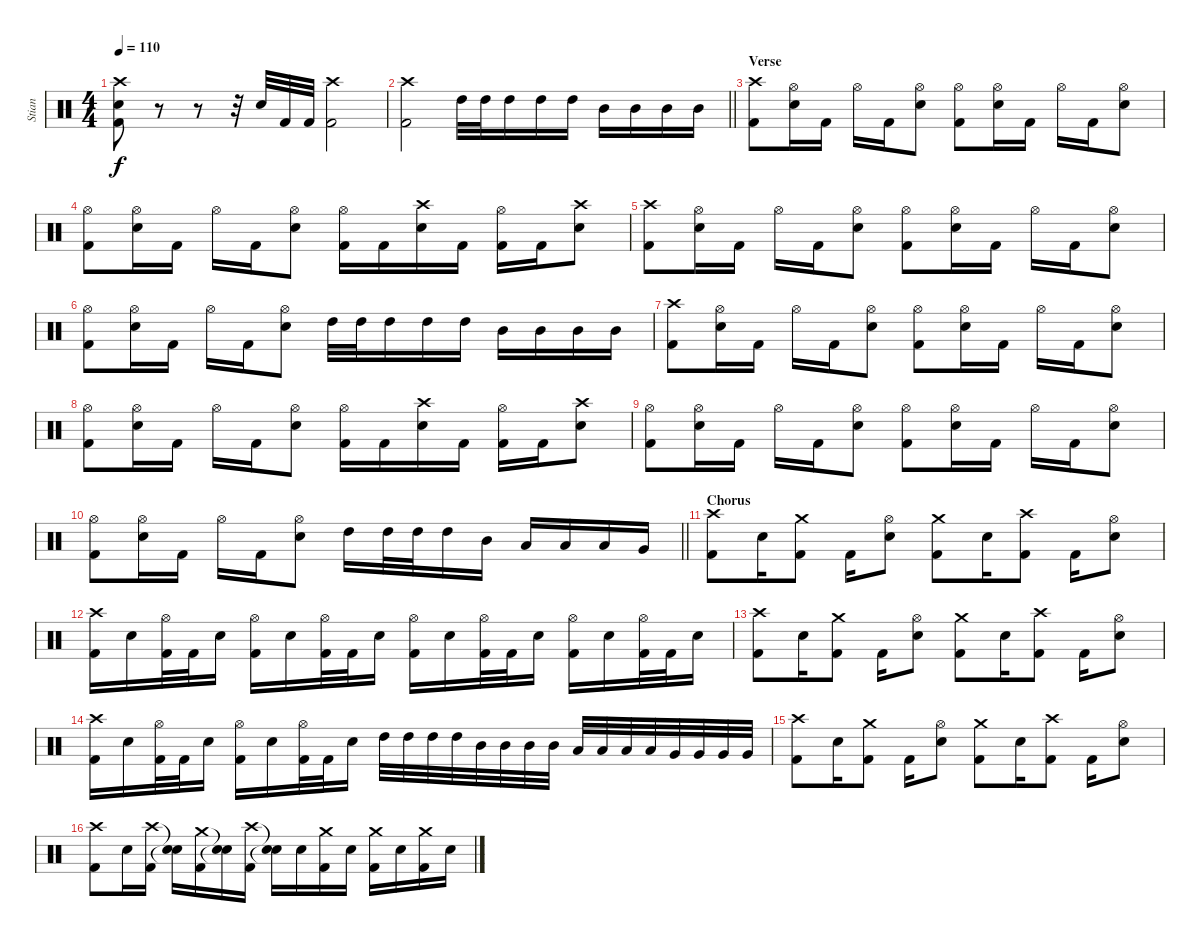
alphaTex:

\track ("Stian" "Stian") {instrument percussion}
\staff {score}
\articulation defaults
\ts (4 4)
\tempo 110
\clef neutral
\ks c
("Crash high (hit)" "Electric Snare (hit)" "Kick (hit) 2").8{dy f} r.8 r.8 r.32 "Electric Snare (hit)".32 "Kick (hit) 2".32 "Kick (hit) 2".32 ("Crash high (hit)" "Kick (hit) 2").2 |
\barLineRight lightlight
("Crash high (hit)" "Kick (hit) 2").2 "High Tom (hit)".32 "High Tom (hit)".32 "High Tom (hit)".16 "High Tom (hit)".16 "High Tom (hit)".16 "Mid Tom (hit)".16 "Mid Tom (hit)".16 "Mid Tom (hit)".16 "Mid Tom (hit)".16 |
\section ("" "Verse")
("Crash high (hit)" "Kick (hit) 2").8 ("Hi-Hat (open)" "Electric Snare (hit)").16 "Kick (hit) 2".16 "Hi-Hat (open)".16 "Kick (hit) 2".16 ("Hi-Hat (open)" "Electric Snare (hit)").8 ("Hi-Hat (open)" "Kick (hit) 2").8 ("Hi-Hat (open)" "Electric Snare (hit)").16 "Kick (hit) 2".16 "Hi-Hat (open)".16 "Kick (hit) 2".16 ("Hi-Hat (open)" "Electric Snare (hit)").8 |
("Hi-Hat (open)" "Kick (hit) 2").8 ("Hi-Hat (open)" "Electric Snare (hit)").16 "Kick (hit) 2".16 "Hi-Hat (open)".16 "Kick (hit) 2".16 ("Hi-Hat (open)" "Electric Snare (hit)").8 ("Hi-Hat (open)" "Kick (hit) 2").16 "Kick (hit) 2".16 ("Crash high (hit)" "Electric Snare (hit)").16 "Kick (hit) 2".16 ("Hi-Hat (open)" "Kick (hit) 2").16 "Kick (hit) 2".16 ("Crash high (hit)" "Electric Snare (hit)").8 |
("Crash high (hit)" "Kick (hit) 2").8 ("Hi-Hat (open)" "Electric Snare (hit)").16 "Kick (hit) 2".16 "Hi-Hat (open)".16 "Kick (hit) 2".16 ("Hi-Hat (open)" "Electric Snare (hit)").8 ("Hi-Hat (open)" "Kick (hit) 2").8 ("Hi-Hat (open)" "Electric Snare (hit)").16 "Kick (hit) 2".16 "Hi-Hat (open)".16 "Kick (hit) 2".16 ("Hi-Hat (open)" "Electric Snare (hit)").8 |
("Hi-Hat (open)" "Kick (hit) 2").8 ("Hi-Hat (open)" "Electric Snare (hit)").16 "Kick (hit) 2".16 "Hi-Hat (open)".16 "Kick (hit) 2".16 ("Hi-Hat (open)" "Electric Snare (hit)").8 "High Tom (hit)".32 "High Tom (hit)".32 "High Tom (hit)".16 "High Tom (hit)".16 "High Tom (hit)".16 "Mid Tom (hit)".16 "Mid Tom (hit)".16 "Mid Tom (hit)".16 "Mid Tom (hit)".16 |
("Crash high (hit)" "Kick (hit) 2").8 ("Hi-Hat (open)" "Electric Snare (hit)").16 "Kick (hit) 2".16 "Hi-Hat (open)".16 "Kick (hit) 2".16 ("Hi-Hat (open)" "Electric Snare (hit)").8 ("Hi-Hat (open)" "Kick (hit) 2").8 ("Hi-Hat (open)" "Electric Snare (hit)").16 "Kick (hit) 2".16 "Hi-Hat (open)".16 "Kick (hit) 2".16 ("Hi-Hat (open)" "Electric Snare (hit)").8 |
("Hi-Hat (open)" "Kick (hit) 2").8 ("Hi-Hat (open)" "Electric Snare (hit)").16 "Kick (hit) 2".16 "Hi-Hat (open)".16 "Kick (hit) 2".16 ("Hi-Hat (open)" "Electric Snare (hit)").8 ("Hi-Hat (open)" "Kick (hit) 2").16 "Kick (hit) 2".16 ("Crash high (hit)" "Electric Snare (hit)").16 "Kick (hit) 2".16 ("Hi-Hat (open)" "Kick (hit) 2").16 "Kick (hit) 2".16 ("Crash high (hit)" "Electric Snare (hit)").8 |
("Hi-Hat (open)" "Kick (hit) 2").8 ("Hi-Hat (open)" "Electric Snare (hit)").16 "Kick (hit) 2".16 "Hi-Hat (open)".16 "Kick (hit) 2".16 ("Hi-Hat (open)" "Electric Snare (hit)").8 ("Hi-Hat (open)" "Kick (hit) 2").8 ("Hi-Hat (open)" "Electric Snare (hit)").16 "Kick (hit) 2".16 "Hi-Hat (open)".16 "Kick (hit) 2".16 ("Hi-Hat (open)" "Electric Snare (hit)").8 |
\barLineRight lightlight
("Hi-Hat (open)" "Kick (hit) 2").8 ("Hi-Hat (open)" "Electric Snare (hit)").16 "Kick (hit) 2".16 "Hi-Hat (open)".16 "Kick (hit) 2".16 ("Hi-Hat (open)" "Electric Snare (hit)").8 "High Tom (hit)".16 "High Tom (hit)".32 "High Tom (hit)".32 "High Tom (hit)".16 "Mid Tom (hit)".16 "Low Tom (hit)".16 "Low Tom (hit)".16 "Low Tom (hit)".16 "Very Low Tom (hit)".16 |
\section ("" "Chorus")
("Crash high (hit)" "Kick (hit) 2").8 "Electric Snare (hit)".16 ("Crash medium (hit)" "Kick (hit) 2").8 "Kick (hit) 2".16 ("Hi-Hat (open)" "Electric Snare (hit)").8 ("Crash medium (hit)" "Kick (hit) 2").8 "Electric Snare (hit)".16 ("Crash high (hit)" "Kick (hit) 2").8 "Kick (hit) 2".16 ("Hi-Hat (open)" "Electric Snare (hit)").8 |
("Crash high (hit)" "Kick (hit) 2").16 "Electric Snare (hit)".16 ("Hi-Hat (open)" "Kick (hit) 2").32 "Kick (hit) 2".32 "Electric Snare (hit)".16 ("Hi-Hat (open)" "Kick (hit) 2").16 "Electric Snare (hit)".16 ("Hi-Hat (open)" "Kick (hit) 2").32 "Kick (hit) 2".32 "Electric Snare (hit)".16 ("Hi-Hat (open)" "Kick (hit) 2").16 "Electric Snare (hit)".16 ("Hi-Hat (open)" "Kick (hit) 2").32 "Kick (hit) 2".32 "Electric Snare (hit)".16 ("Hi-Hat (open)" "Kick (hit) 2").16 "Electric Snare (hit)".16 ("Hi-Hat (open)" "Kick (hit) 2").32 "Kick (hit) 2".32 "Electric Snare (hit)".16 |
("Crash high (hit)" "Kick (hit) 2").8 "Electric Snare (hit)".16 ("Crash medium (hit)" "Kick (hit) 2").8 "Kick (hit) 2".16 ("Hi-Hat (open)" "Electric Snare (hit)").8 ("Crash medium (hit)" "Kick (hit) 2").8 "Electric Snare (hit)".16 ("Crash high (hit)" "Kick (hit) 2").8 "Kick (hit) 2".16 ("Hi-Hat (open)" "Electric Snare (hit)").8 |
("Crash high (hit)" "Kick (hit) 2").16 "Electric Snare (hit)".16 ("Hi-Hat (open)" "Kick (hit) 2").32 "Kick (hit) 2".32 "Electric Snare (hit)".16 ("Hi-Hat (open)" "Kick (hit) 2").16 "Electric Snare (hit)".16 ("Hi-Hat (open)" "Kick (hit) 2").32 "Kick (hit) 2".32 "Electric Snare (hit)".16 "High Tom (hit)".32 "High Tom (hit)".32 "High Tom (hit)".32 "High Tom (hit)".32 "Mid Tom (hit)".32 "Mid Tom (hit)".32 "Mid Tom (hit)".32 "Mid Tom (hit)".32 "Low Tom (hit)".32 "Low Tom (hit)".32 "Low Tom (hit)".32 "Low Tom (hit)".32 "Very Low Tom (hit)".32 "Very Low Tom (hit)".32 "Very Low Tom (hit)".32 "Very Low Tom (hit)".32 |
("Crash high (hit)" "Kick (hit) 2").8 "Electric Snare (hit)".16 ("Crash medium (hit)" "Kick (hit) 2").8 "Kick (hit) 2".16 ("Hi-Hat (open)" "Electric Snare (hit)").8 ("Crash medium (hit)" "Kick (hit) 2").8 "Electric Snare (hit)".16 ("Crash high (hit)" "Kick (hit) 2").8 "Kick (hit) 2".16 ("Hi-Hat (open)" "Electric Snare (hit)").8 |
("Crash high (hit)" "Kick (hit) 2").8 "Electric Snare (hit)".16 ("Crash high (hit)" "Kick (hit) 2").16 ("Snare (hit)"{t} "Snare (hit)"{t}).16 ("Crash medium (hit)" "Kick (hit) 2").16 ("Snare (hit)"{t} "Snare (hit)"{t}).16 ("Crash high (hit)" "Kick (hit) 2").16 ("Snare (hit)"{t} "Snare (hit)"{t}).16 "Electric Snare (hit)".16 ("Crash medium (hit)" "Kick (hit) 2").16 "Electric Snare (hit)".16 ("Crash medium (hit)" "Kick (hit) 2").16 "Electric Snare (hit)".16 ("Crash medium (hit)" "Kick (hit) 2").16 "Electric Snare (hit)".16
